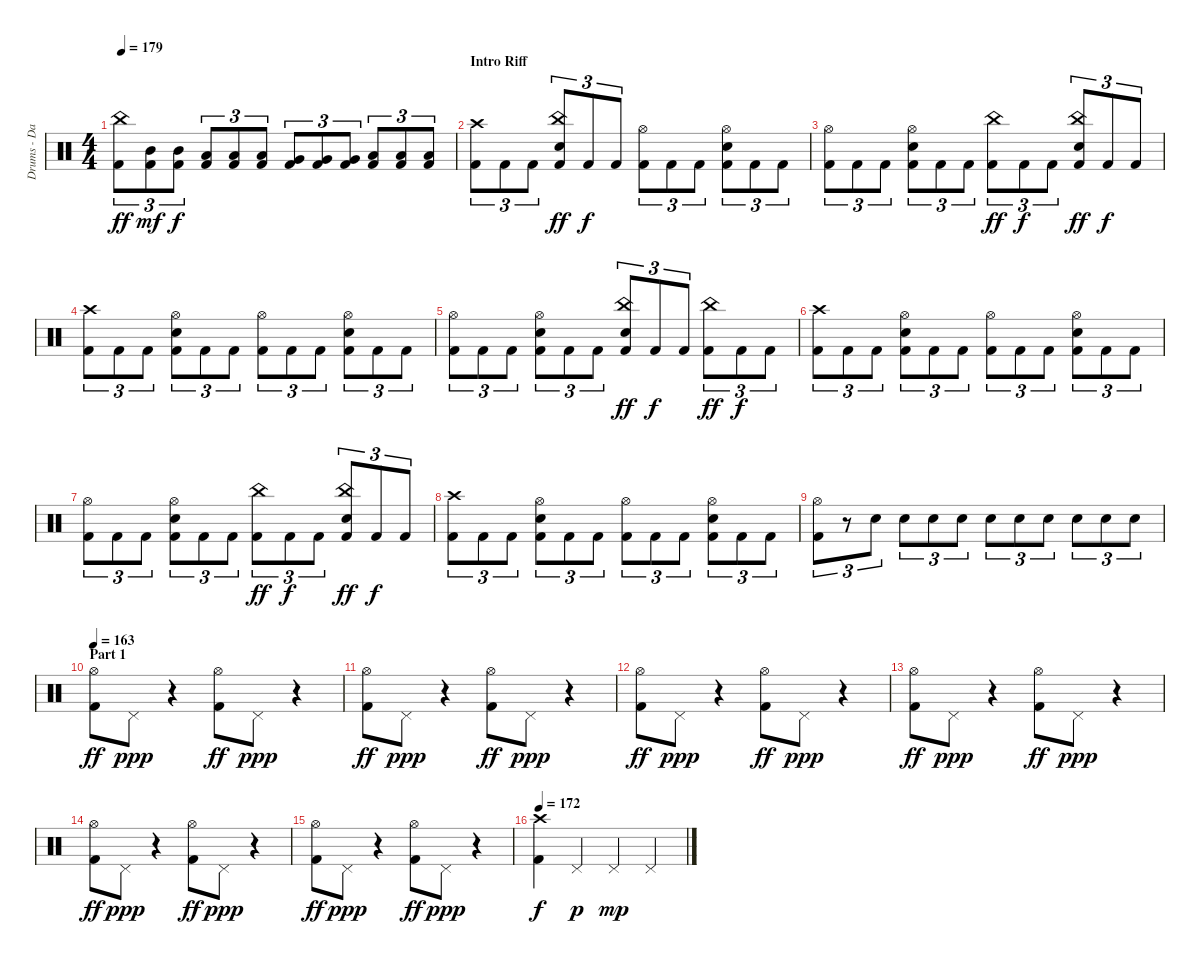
\track ("Drums - Dan Zimmermann" "Drums - Da") {instrument percussion}
\staff {score}
\articulation defaults
\ts (4 4)
\tempo 179
\clef neutral
\ks c
("Kick (hit) 2" "China (hit)").8{tu (3 2) dy ff} ("Kick (hit) 2" "Mid Tom (hit)").8{tu (3 2) dy mf} ("Kick (hit) 2" "Mid Tom (hit)").8{tu (3 2) dy f} ("Kick (hit) 2" "Low Tom (hit)").8{tu (3 2)} ("Kick (hit) 2" "Low Tom (hit)").8{tu (3 2)} ("Kick (hit) 2" "Low Tom (hit)").8{tu (3 2)} ("Kick (hit) 2" "Very Low Tom (hit)").8{tu (3 2)} ("Kick (hit) 2" "Very Low Tom (hit)").8{tu (3 2)} ("Kick (hit) 2" "Very Low Tom (hit)").8{tu (3 2)} ("Kick (hit) 2" "Low Floor Tom (hit)").8{tu (3 2)} ("Kick (hit) 2" "Low Floor Tom (hit)").8{tu (3 2)} ("Kick (hit) 2" "Low Floor Tom (hit)").8{tu (3 2)} |
\section ("" "Intro Riff")
("Kick (hit) 2" "Crash high (hit)").8{tu (3 2)} "Kick (hit) 2".8{tu (3 2)} "Kick (hit) 2".8{tu (3 2)} ("Kick (hit) 2" "Electric Snare (hit)" "China (hit)").8{tu (3 2) dy ff} "Kick (hit) 2".8{tu (3 2) dy f} "Kick (hit) 2".8{tu (3 2)} ("Kick (hit) 2" "Hi-Hat (open)").8{tu (3 2)} "Kick (hit) 2".8{tu (3 2)} "Kick (hit) 2".8{tu (3 2)} ("Kick (hit) 2" "Electric Snare (hit)" "Hi-Hat (open)").8{tu (3 2)} "Kick (hit) 2".8{tu (3 2)} "Kick (hit) 2".8{tu (3 2)} |
("Kick (hit) 2" "Hi-Hat (open)").8{tu (3 2)} "Kick (hit) 2".8{tu (3 2)} "Kick (hit) 2".8{tu (3 2)} ("Kick (hit) 2" "Electric Snare (hit)" "Hi-Hat (open)").8{tu (3 2)} "Kick (hit) 2".8{tu (3 2)} "Kick (hit) 2".8{tu (3 2)} ("Kick (hit) 2" "China (hit)").8{tu (3 2) dy ff} "Kick (hit) 2".8{tu (3 2) dy f} "Kick (hit) 2".8{tu (3 2)} ("Kick (hit) 2" "Electric Snare (hit)" "China (hit)").8{tu (3 2) dy ff} "Kick (hit) 2".8{tu (3 2) dy f} "Kick (hit) 2".8{tu (3 2)} |
("Kick (hit) 2" "Crash high (hit)").8{tu (3 2)} "Kick (hit) 2".8{tu (3 2)} "Kick (hit) 2".8{tu (3 2)} ("Kick (hit) 2" "Electric Snare (hit)" "Hi-Hat (open)").8{tu (3 2)} "Kick (hit) 2".8{tu (3 2)} "Kick (hit) 2".8{tu (3 2)} ("Kick (hit) 2" "Hi-Hat (open)").8{tu (3 2)} "Kick (hit) 2".8{tu (3 2)} "Kick (hit) 2".8{tu (3 2)} ("Kick (hit) 2" "Electric Snare (hit)" "Hi-Hat (open)").8{tu (3 2)} "Kick (hit) 2".8{tu (3 2)} "Kick (hit) 2".8{tu (3 2)} |
("Kick (hit) 2" "Hi-Hat (open)").8{tu (3 2)} "Kick (hit) 2".8{tu (3 2)} "Kick (hit) 2".8{tu (3 2)} ("Kick (hit) 2" "Electric Snare (hit)" "Hi-Hat (open)").8{tu (3 2)} "Kick (hit) 2".8{tu (3 2)} "Kick (hit) 2".8{tu (3 2)} ("Kick (hit) 2" "Electric Snare (hit)" "China (hit)").8{tu (3 2) dy ff} "Kick (hit) 2".8{tu (3 2) dy f} "Kick (hit) 2".8{tu (3 2)} ("Kick (hit) 2" "China (hit)").8{tu (3 2) dy ff} "Kick (hit) 2".8{tu (3 2) dy f} "Kick (hit) 2".8{tu (3 2)} |
("Kick (hit) 2" "Crash high (hit)").8{tu (3 2)} "Kick (hit) 2".8{tu (3 2)} "Kick (hit) 2".8{tu (3 2)} ("Kick (hit) 2" "Electric Snare (hit)" "Hi-Hat (open)").8{tu (3 2)} "Kick (hit) 2".8{tu (3 2)} "Kick (hit) 2".8{tu (3 2)} ("Kick (hit) 2" "Hi-Hat (open)").8{tu (3 2)} "Kick (hit) 2".8{tu (3 2)} "Kick (hit) 2".8{tu (3 2)} ("Kick (hit) 2" "Electric Snare (hit)" "Hi-Hat (open)").8{tu (3 2)} "Kick (hit) 2".8{tu (3 2)} "Kick (hit) 2".8{tu (3 2)} |
("Kick (hit) 2" "Hi-Hat (open)").8{tu (3 2)} "Kick (hit) 2".8{tu (3 2)} "Kick (hit) 2".8{tu (3 2)} ("Kick (hit) 2" "Electric Snare (hit)" "Hi-Hat (open)").8{tu (3 2)} "Kick (hit) 2".8{tu (3 2)} "Kick (hit) 2".8{tu (3 2)} ("Kick (hit) 2" "China (hit)").8{tu (3 2) dy ff} "Kick (hit) 2".8{tu (3 2) dy f} "Kick (hit) 2".8{tu (3 2)} ("Kick (hit) 2" "Electric Snare (hit)" "China (hit)").8{tu (3 2) dy ff} "Kick (hit) 2".8{tu (3 2) dy f} "Kick (hit) 2".8{tu (3 2)} |
("Kick (hit) 2" "Crash high (hit)").8{tu (3 2)} "Kick (hit) 2".8{tu (3 2)} "Kick (hit) 2".8{tu (3 2)} ("Kick (hit) 2" "Electric Snare (hit)" "Hi-Hat (open)").8{tu (3 2)} "Kick (hit) 2".8{tu (3 2)} "Kick (hit) 2".8{tu (3 2)} ("Kick (hit) 2" "Hi-Hat (open)").8{tu (3 2)} "Kick (hit) 2".8{tu (3 2)} "Kick (hit) 2".8{tu (3 2)} ("Kick (hit) 2" "Electric Snare (hit)" "Hi-Hat (open)").8{tu (3 2)} "Kick (hit) 2".8{tu (3 2)} "Kick (hit) 2".8{tu (3 2)} |
("Kick (hit) 2" "Hi-Hat (open)").8{tu (3 2)} r.8{tu (3 2)} "Electric Snare (hit)".8{tu (3 2)} "Electric Snare (hit)".8{tu (3 2)} "Electric Snare (hit)".8{tu (3 2)} "Electric Snare (hit)".8{tu (3 2)} "Electric Snare (hit)".8{tu (3 2)} "Electric Snare (hit)".8{tu (3 2)} "Electric Snare (hit)".8{tu (3 2)} "Electric Snare (hit)".8{tu (3 2)} "Electric Snare (hit)".8{tu (3 2)} "Electric Snare (hit)".8{tu (3 2)} |
\section ("" "Part 1")
\tempo 163
("Kick (hit) 2" "Hi-Hat (open)").8{dy ff} "Pedal Hi-Hat (hit)".8{dy ppp} r.4 ("Kick (hit) 2" "Hi-Hat (open)").8{dy ff} "Pedal Hi-Hat (hit)".8{dy ppp} r.4 |
("Kick (hit) 2" "Hi-Hat (open)").8{dy ff} "Pedal Hi-Hat (hit)".8{dy ppp} r.4 ("Kick (hit) 2" "Hi-Hat (open)").8{dy ff} "Pedal Hi-Hat (hit)".8{dy ppp} r.4 |
("Kick (hit) 2" "Hi-Hat (open)").8{dy ff} "Pedal Hi-Hat (hit)".8{dy ppp} r.4 ("Kick (hit) 2" "Hi-Hat (open)").8{dy ff} "Pedal Hi-Hat (hit)".8{dy ppp} r.4 |
("Kick (hit) 2" "Hi-Hat (open)").8{dy ff} "Pedal Hi-Hat (hit)".8{dy ppp} r.4 ("Kick (hit) 2" "Hi-Hat (open)").8{dy ff} "Pedal Hi-Hat (hit)".8{dy ppp} r.4 |
("Kick (hit) 2" "Hi-Hat (open)").8{dy ff} "Pedal Hi-Hat (hit)".8{dy ppp} r.4 ("Kick (hit) 2" "Hi-Hat (open)").8{dy ff} "Pedal Hi-Hat (hit)".8{dy ppp} r.4 |
("Kick (hit) 2" "Hi-Hat (open)").8{dy ff} "Pedal Hi-Hat (hit)".8{dy ppp} r.4 ("Kick (hit) 2" "Hi-Hat (open)").8{dy ff} "Pedal Hi-Hat (hit)".8{dy ppp} r.4 |
\tempo 172
("Kick (hit) 2" "Crash high (hit)").4{dy f} "Pedal Hi-Hat (hit)".4{dy p} "Pedal Hi-Hat (hit)".4{dy mp} "Pedal Hi-Hat (hit)".4
